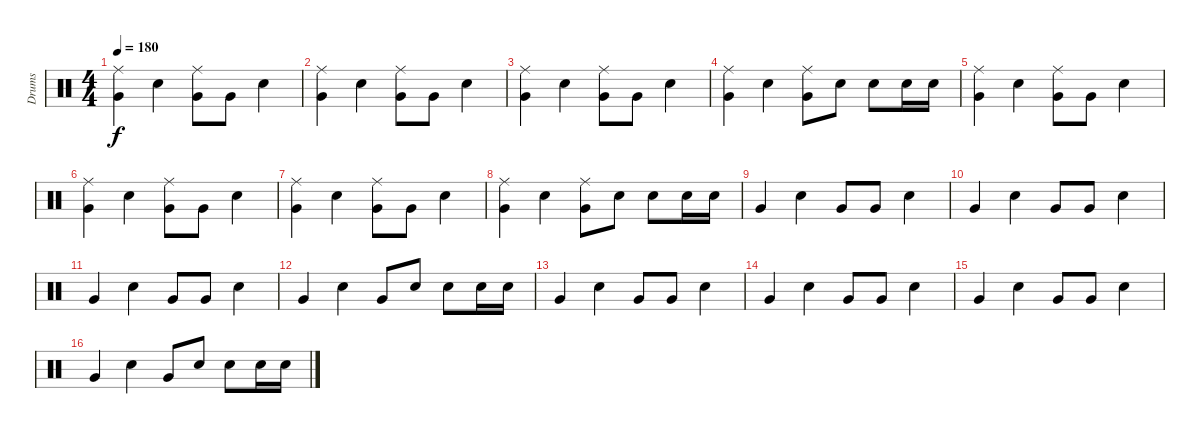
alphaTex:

\track ("Drums" "Drums") {instrument percussion}
\staff {score}
\articulation defaults
\ts (4 4)
\tempo 180
\clef neutral
\ks c
("Very Low Tom (hit)" "Ride (middle)").4{dy f} "Electric Snare (hit)".4 ("Very Low Tom (hit)" "Ride (middle)").8 "Very Low Tom (hit)".8 "Electric Snare (hit)".4 |
("Very Low Tom (hit)" "Ride (middle)").4 "Electric Snare (hit)".4 ("Very Low Tom (hit)" "Ride (middle)").8 "Very Low Tom (hit)".8 "Electric Snare (hit)".4 |
("Very Low Tom (hit)" "Ride (middle)").4 "Electric Snare (hit)".4 ("Very Low Tom (hit)" "Ride (middle)").8 "Very Low Tom (hit)".8 "Electric Snare (hit)".4 |
("Very Low Tom (hit)" "Ride (middle)").4 "Electric Snare (hit)".4 ("Very Low Tom (hit)" "Ride (middle)").8 "Electric Snare (hit)".8 "Electric Snare (hit)".8 "Electric Snare (hit)".16 "Electric Snare (hit)".16 |
("Very Low Tom (hit)" "Ride (middle)").4 "Electric Snare (hit)".4 ("Very Low Tom (hit)" "Ride (middle)").8 "Very Low Tom (hit)".8 "Electric Snare (hit)".4 |
("Very Low Tom (hit)" "Ride (middle)").4 "Electric Snare (hit)".4 ("Very Low Tom (hit)" "Ride (middle)").8 "Very Low Tom (hit)".8 "Electric Snare (hit)".4 |
("Very Low Tom (hit)" "Ride (middle)").4 "Electric Snare (hit)".4 ("Very Low Tom (hit)" "Ride (middle)").8 "Very Low Tom (hit)".8 "Electric Snare (hit)".4 |
("Very Low Tom (hit)" "Ride (middle)").4 "Electric Snare (hit)".4 ("Very Low Tom (hit)" "Ride (middle)").8 "Electric Snare (hit)".8 "Electric Snare (hit)".8 "Electric Snare (hit)".16 "Electric Snare (hit)".16 |
"Very Low Tom (hit)".4 "Electric Snare (hit)".4 "Very Low Tom (hit)".8 "Very Low Tom (hit)".8 "Electric Snare (hit)".4 |
"Very Low Tom (hit)".4 "Electric Snare (hit)".4 "Very Low Tom (hit)".8 "Very Low Tom (hit)".8 "Electric Snare (hit)".4 |
"Very Low Tom (hit)".4 "Electric Snare (hit)".4 "Very Low Tom (hit)".8 "Very Low Tom (hit)".8 "Electric Snare (hit)".4 |
"Very Low Tom (hit)".4 "Electric Snare (hit)".4 "Very Low Tom (hit)".8 "Electric Snare (hit)".8 "Electric Snare (hit)".8 "Electric Snare (hit)".16 "Electric Snare (hit)".16 |
"Very Low Tom (hit)".4 "Electric Snare (hit)".4 "Very Low Tom (hit)".8 "Very Low Tom (hit)".8 "Electric Snare (hit)".4 |
"Very Low Tom (hit)".4 "Electric Snare (hit)".4 "Very Low Tom (hit)".8 "Very Low Tom (hit)".8 "Electric Snare (hit)".4 |
"Very Low Tom (hit)".4 "Electric Snare (hit)".4 "Very Low Tom (hit)".8 "Very Low Tom (hit)".8 "Electric Snare (hit)".4 |
"Very Low Tom (hit)".4 "Electric Snare (hit)".4 "Very Low Tom (hit)".8 "Electric Snare (hit)".8 "Electric Snare (hit)".8 "Electric Snare (hit)".16 "Electric Snare (hit)".16
